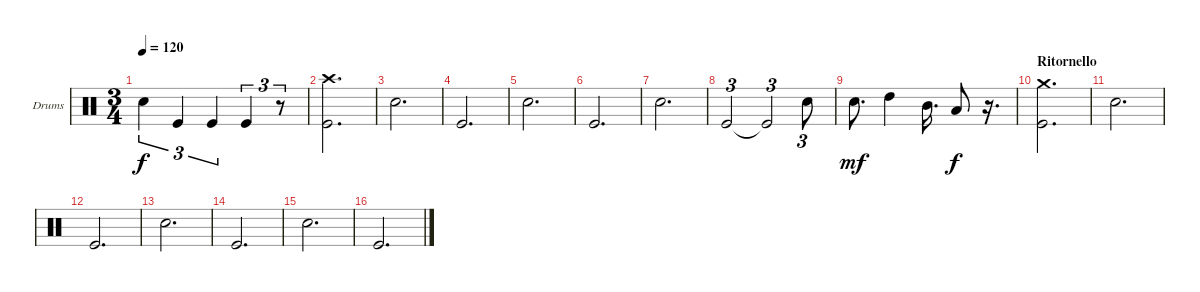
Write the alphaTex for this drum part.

\bracketExtendMode groupsimilarinstruments
\firstSystemTrackNameOrientation horizontal
\otherSystemsTrackNameOrientation horizontal
\track ("Drumkit" "Drums") {instrument percussion}
\staff {score}
\articulation defaults
\ts (3 4)
\tempo 120
\clef neutral
\ks c "Snare (hit) 2".4{tu (3 2) dy f} "Kick (hit)".4{tu (3 2)} "Kick (hit)".4{tu (3 2)} "Kick (hit)".4{tu (3 2)}
r.8{tu (3 2)} |
("Crash high (hit)" "Kick (hit)").2{d} |
"Snare (hit) 2".2{d} |
"Kick (hit)".2{d} |
"Snare (hit) 2".2{d} |
"Kick (hit)".2{d} |
"Snare (hit) 2".2{d} |
"Kick (hit)".2{tu (3 2)} "Kick (hit)"{t}.2{tu (3 2)} "Snare (hit) 2".8{tu (3 2)} |
"Snare (hit) 2".8{d dy mf} "High Tom (hit)".4 "Mid Tom (hit)".16{d} "Low Tom (hit)".8{dy f} r.16{d} |
\section ("" "Ritornello")
("Crash medium (hit)" "Kick (hit)").2{d} |
"Snare (hit) 2".2{d} |
"Kick (hit)".2{d} |
"Snare (hit) 2".2{d} |
"Kick (hit)".2{d} |
"Snare (hit) 2".2{d} |
"Kick (hit)".2{d}
